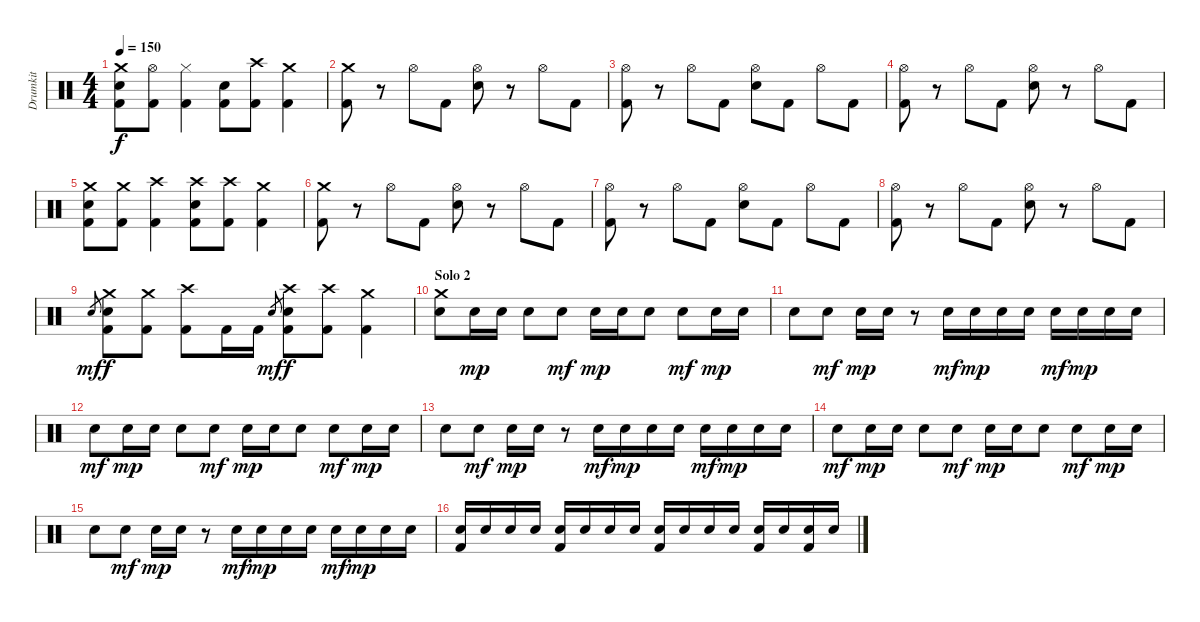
\track ("Drumkit" "Drumkit") {instrument percussion}
\staff {score}
\articulation defaults
\ts (4 4)
\tempo 150
\clef neutral
\ks c
("Crash medium (hit)" "Snare (hit) 2" "Kick (hit) 2").8{dy f} ("Hi-Hat (open)" "Kick (hit) 2").8 ("Hi-Hat (closed)" "Kick (hit) 2").4 ("Snare (hit) 2" "Kick (hit) 2").8 ("Crash high (hit)" "Kick (hit) 2").8 ("Crash medium (hit)" "Kick (hit) 2").4 |
("Crash medium (hit)" "Kick (hit) 2").8 r.8 "Hi-Hat (open)".8 "Kick (hit) 2".8 ("Hi-Hat (open)" "Snare (hit) 2").8 r.8 "Hi-Hat (open)".8 "Kick (hit) 2".8 |
("Hi-Hat (open)" "Kick (hit) 2").8 r.8 "Hi-Hat (open)".8 "Kick (hit) 2".8 ("Hi-Hat (open)" "Snare (hit) 2").8 "Kick (hit) 2".8 "Hi-Hat (open)".8 "Kick (hit) 2".8 |
("Hi-Hat (open)" "Kick (hit) 2").8 r.8 "Hi-Hat (open)".8 "Kick (hit) 2".8 ("Hi-Hat (open)" "Snare (hit) 2").8 r.8 "Hi-Hat (open)".8 "Kick (hit) 2".8 |
("Crash medium (hit)" "Snare (hit) 2" "Kick (hit) 2").8 ("Crash medium (hit)" "Kick (hit) 2").8 ("Crash high (hit)" "Kick (hit) 2").4 ("Crash high (hit)" "Snare (hit) 2" "Kick (hit) 2").8 ("Crash high (hit)" "Kick (hit) 2").8 ("Crash medium (hit)" "Kick (hit) 2").4 |
("Crash medium (hit)" "Kick (hit) 2").8 r.8 "Hi-Hat (open)".8 "Kick (hit) 2".8 ("Hi-Hat (open)" "Snare (hit) 2").8 r.8 "Hi-Hat (open)".8 "Kick (hit) 2".8 |
("Hi-Hat (open)" "Kick (hit) 2").8 r.8 "Hi-Hat (open)".8 "Kick (hit) 2".8 ("Hi-Hat (open)" "Snare (hit) 2").8 "Kick (hit) 2".8 "Hi-Hat (open)".8 "Kick (hit) 2".8 |
("Hi-Hat (open)" "Kick (hit) 2").8 r.8 "Hi-Hat (open)".8 "Kick (hit) 2".8 ("Hi-Hat (open)" "Snare (hit) 2").8 r.8 "Hi-Hat (open)".8 "Kick (hit) 2".8 |
"Snare (hit)".8{gr dy mf} ("Crash medium (hit)" "Snare (hit) 2" "Kick (hit) 2").8{dy f} ("Crash medium (hit)" "Kick (hit) 2").8 ("Crash high (hit)" "Kick (hit) 2").8 "Kick (hit) 2".16 "Kick (hit) 2".16 "Snare (hit)".8{gr dy mf} ("Crash high (hit)" "Snare (hit) 2" "Kick (hit) 2").8{dy f} ("Crash high (hit)" "Kick (hit) 2").8 ("Crash medium (hit)" "Kick (hit) 2").4 |
\section ("" "Solo 2")
("Crash medium (hit)" "Snare (hit) 2").8 "Snare (hit) 2".16{dy mp} "Snare (hit) 2".16 "Snare (hit) 2".8 "Snare (hit) 2".8{dy mf} "Snare (hit) 2".16{dy mp} "Snare (hit) 2".16 "Snare (hit) 2".8 "Snare (hit) 2".8{dy mf} "Snare (hit) 2".16{dy mp} "Snare (hit) 2".16 |
"Snare (hit) 2".8 "Snare (hit) 2".8{dy mf} "Snare (hit) 2".16{dy mp} "Snare (hit) 2".16 r.8 "Snare (hit) 2".16{dy mf} "Snare (hit) 2".16{dy mp} "Snare (hit) 2".16 "Snare (hit) 2".16 "Snare (hit) 2".16{dy mf} "Snare (hit) 2".16{dy mp} "Snare (hit) 2".16 "Snare (hit) 2".16 |
"Snare (hit) 2".8{dy mf} "Snare (hit) 2".16{dy mp} "Snare (hit) 2".16 "Snare (hit) 2".8 "Snare (hit) 2".8{dy mf} "Snare (hit) 2".16{dy mp} "Snare (hit) 2".16 "Snare (hit) 2".8 "Snare (hit) 2".8{dy mf} "Snare (hit) 2".16{dy mp} "Snare (hit) 2".16 |
"Snare (hit) 2".8 "Snare (hit) 2".8{dy mf} "Snare (hit) 2".16{dy mp} "Snare (hit) 2".16 r.8 "Snare (hit) 2".16{dy mf} "Snare (hit) 2".16{dy mp} "Snare (hit) 2".16 "Snare (hit) 2".16 "Snare (hit) 2".16{dy mf} "Snare (hit) 2".16{dy mp} "Snare (hit) 2".16 "Snare (hit) 2".16 |
"Snare (hit) 2".8{dy mf} "Snare (hit) 2".16{dy mp} "Snare (hit) 2".16 "Snare (hit) 2".8 "Snare (hit) 2".8{dy mf} "Snare (hit) 2".16{dy mp} "Snare (hit) 2".16 "Snare (hit) 2".8 "Snare (hit) 2".8{dy mf} "Snare (hit) 2".16{dy mp} "Snare (hit) 2".16 |
"Snare (hit) 2".8 "Snare (hit) 2".8{dy mf} "Snare (hit) 2".16{dy mp} "Snare (hit) 2".16 r.8 "Snare (hit) 2".16{dy mf} "Snare (hit) 2".16{dy mp} "Snare (hit) 2".16 "Snare (hit) 2".16 "Snare (hit) 2".16{dy mf} "Snare (hit) 2".16{dy mp} "Snare (hit) 2".16 "Snare (hit) 2".16 |
("Snare (hit) 2" "Kick (hit) 2").16 "Snare (hit) 2".16 "Snare (hit) 2".16 "Snare (hit) 2".16 ("Snare (hit) 2" "Kick (hit) 2").16 "Snare (hit) 2".16 "Snare (hit) 2".16 "Snare (hit) 2".16 ("Snare (hit) 2" "Kick (hit) 2").16 "Snare (hit) 2".16 "Snare (hit) 2".16 "Snare (hit) 2".16 ("Snare (hit) 2" "Kick (hit) 2").16 "Snare (hit) 2".16 ("Snare (hit) 2" "Kick (hit) 2").16 "Snare (hit) 2".16
